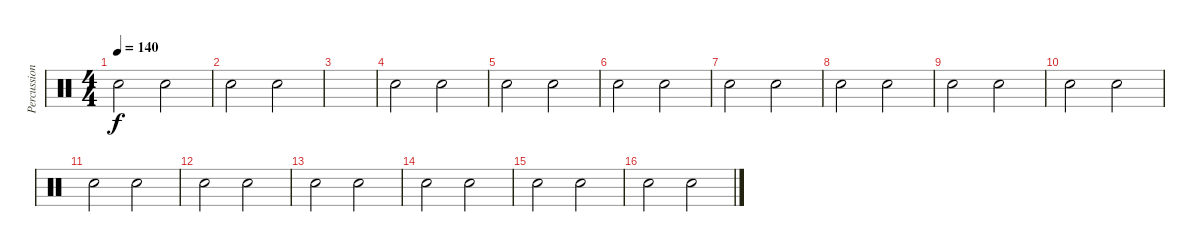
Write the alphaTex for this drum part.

\track ("Percussions" "Percussion") {instrument percussion}
\staff {score}
\articulation defaults
\ts (4 4)
\tempo 140
\clef neutral
\ks c "Hand Clap (hit)".2{dy f} "Hand Clap (hit)".2
|
"Hand Clap (hit)".2 "Hand Clap (hit)".2 |
|
"Hand Clap (hit)".2 "Hand Clap (hit)".2 |
"Hand Clap (hit)".2 "Hand Clap (hit)".2 |
"Hand Clap (hit)".2 "Hand Clap (hit)".2 |
"Hand Clap (hit)".2 "Hand Clap (hit)".2 |
"Hand Clap (hit)".2 "Hand Clap (hit)".2 |
"Hand Clap (hit)".2 "Hand Clap (hit)".2 |
"Hand Clap (hit)".2 "Hand Clap (hit)".2 |
"Hand Clap (hit)".2 "Hand Clap (hit)".2 |
"Hand Clap (hit)".2 "Hand Clap (hit)".2 |
"Hand Clap (hit)".2 "Hand Clap (hit)".2 |
"Hand Clap (hit)".2 "Hand Clap (hit)".2 |
"Hand Clap (hit)".2 "Hand Clap (hit)".2 |
"Hand Clap (hit)".2 "Hand Clap (hit)".2
